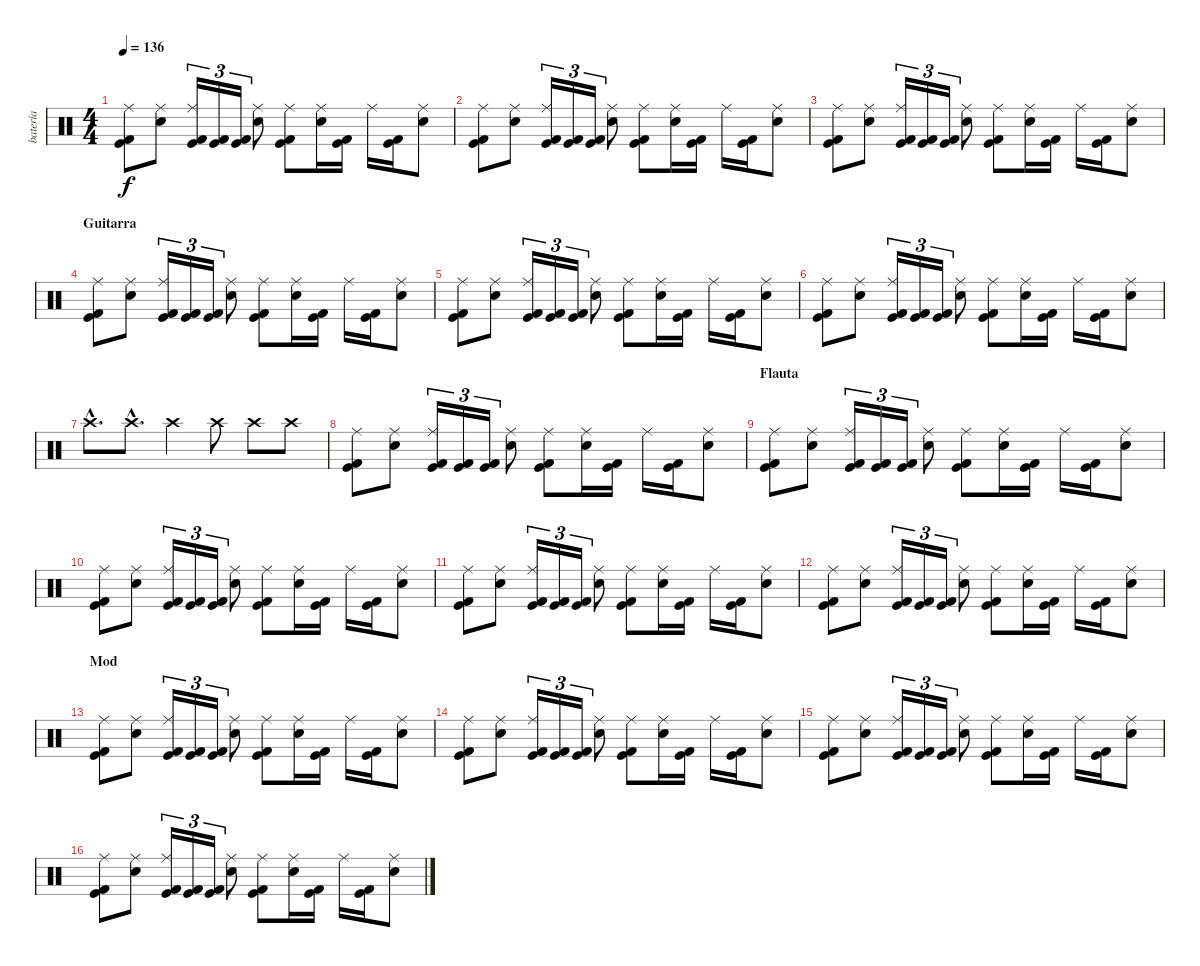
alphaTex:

\track ("batería" "batería") {instrument percussion}
\staff {score}
\articulation defaults
\ts (4 4)
\tempo 136
\clef neutral
\ks c
("Kick (hit) 2" "Ride (middle)" "Kick (hit)").8{dy f} ("Snare (hit) 2" "Ride (middle)").8 ("Kick (hit) 2" "Ride (middle)" "Kick (hit)").16{tu (3 2)} ("Kick (hit) 2" "Kick (hit)").16{tu (3 2)} ("Kick (hit) 2" "Kick (hit)").16{tu (3 2)} ("Snare (hit) 2" "Ride (middle)").8 ("Kick (hit) 2" "Ride (middle)" "Kick (hit)").8 ("Snare (hit) 2" "Ride (middle)").16 ("Kick (hit) 2" "Kick (hit)").16 "Ride (middle)".16 ("Kick (hit) 2" "Kick (hit)").16 ("Snare (hit) 2" "Ride (middle)").8 |
("Kick (hit) 2" "Ride (middle)" "Kick (hit)").8 ("Snare (hit) 2" "Ride (middle)").8 ("Kick (hit) 2" "Ride (middle)" "Kick (hit)").16{tu (3 2)} ("Kick (hit) 2" "Kick (hit)").16{tu (3 2)} ("Kick (hit) 2" "Kick (hit)").16{tu (3 2)} ("Snare (hit) 2" "Ride (middle)").8 ("Kick (hit) 2" "Ride (middle)" "Kick (hit)").8 ("Snare (hit) 2" "Ride (middle)").16 ("Kick (hit) 2" "Kick (hit)").16 "Ride (middle)".16 ("Kick (hit) 2" "Kick (hit)").16 ("Snare (hit) 2" "Ride (middle)").8 |
("Kick (hit) 2" "Ride (middle)" "Kick (hit)").8 ("Snare (hit) 2" "Ride (middle)").8 ("Kick (hit) 2" "Ride (middle)" "Kick (hit)").16{tu (3 2)} ("Kick (hit) 2" "Kick (hit)").16{tu (3 2)} ("Kick (hit) 2" "Kick (hit)").16{tu (3 2)} ("Snare (hit) 2" "Ride (middle)").8 ("Kick (hit) 2" "Ride (middle)" "Kick (hit)").8 ("Snare (hit) 2" "Ride (middle)").16 ("Kick (hit) 2" "Kick (hit)").16 "Ride (middle)".16 ("Kick (hit) 2" "Kick (hit)").16 ("Snare (hit) 2" "Ride (middle)").8 |
\section ("" "Guitarra")
("Kick (hit) 2" "Ride (middle)" "Kick (hit)").8 ("Snare (hit) 2" "Ride (middle)").8 ("Kick (hit) 2" "Ride (middle)" "Kick (hit)").16{tu (3 2)} ("Kick (hit) 2" "Kick (hit)").16{tu (3 2)} ("Kick (hit) 2" "Kick (hit)").16{tu (3 2)} ("Snare (hit) 2" "Ride (middle)").8 ("Kick (hit) 2" "Ride (middle)" "Kick (hit)").8 ("Snare (hit) 2" "Ride (middle)").16 ("Kick (hit) 2" "Kick (hit)").16 "Ride (middle)".16 ("Kick (hit) 2" "Kick (hit)").16 ("Snare (hit) 2" "Ride (middle)").8 |
("Kick (hit) 2" "Ride (middle)" "Kick (hit)").8 ("Snare (hit) 2" "Ride (middle)").8 ("Kick (hit) 2" "Ride (middle)" "Kick (hit)").16{tu (3 2)} ("Kick (hit) 2" "Kick (hit)").16{tu (3 2)} ("Kick (hit) 2" "Kick (hit)").16{tu (3 2)} ("Snare (hit) 2" "Ride (middle)").8 ("Kick (hit) 2" "Ride (middle)" "Kick (hit)").8 ("Snare (hit) 2" "Ride (middle)").16 ("Kick (hit) 2" "Kick (hit)").16 "Ride (middle)".16 ("Kick (hit) 2" "Kick (hit)").16 ("Snare (hit) 2" "Ride (middle)").8 |
("Kick (hit) 2" "Ride (middle)" "Kick (hit)").8 ("Snare (hit) 2" "Ride (middle)").8 ("Kick (hit) 2" "Ride (middle)" "Kick (hit)").16{tu (3 2)} ("Kick (hit) 2" "Kick (hit)").16{tu (3 2)} ("Kick (hit) 2" "Kick (hit)").16{tu (3 2)} ("Snare (hit) 2" "Ride (middle)").8 ("Kick (hit) 2" "Ride (middle)" "Kick (hit)").8 ("Snare (hit) 2" "Ride (middle)").16 ("Kick (hit) 2" "Kick (hit)").16 "Ride (middle)".16 ("Kick (hit) 2" "Kick (hit)").16 ("Snare (hit) 2" "Ride (middle)").8 |
"Crash high (hit)"{hac}.8{d} "Crash high (hit)"{hac}.8{d} "Crash high (hit)".4 "Crash high (hit)".8 "Crash high (hit)".8 "Crash high (hit)".8 |
("Kick (hit) 2" "Ride (middle)" "Kick (hit)").8 ("Snare (hit) 2" "Ride (middle)").8 ("Kick (hit) 2" "Ride (middle)" "Kick (hit)").16{tu (3 2)} ("Kick (hit) 2" "Kick (hit)").16{tu (3 2)} ("Kick (hit) 2" "Kick (hit)").16{tu (3 2)} ("Snare (hit) 2" "Ride (middle)").8 ("Kick (hit) 2" "Ride (middle)" "Kick (hit)").8 ("Snare (hit) 2" "Ride (middle)").16 ("Kick (hit) 2" "Kick (hit)").16 "Ride (middle)".16 ("Kick (hit) 2" "Kick (hit)").16 ("Snare (hit) 2" "Ride (middle)").8 |
\section ("" "Flauta")
("Kick (hit) 2" "Ride (middle)" "Kick (hit)").8 ("Snare (hit) 2" "Ride (middle)").8 ("Kick (hit) 2" "Ride (middle)" "Kick (hit)").16{tu (3 2)} ("Kick (hit) 2" "Kick (hit)").16{tu (3 2)} ("Kick (hit) 2" "Kick (hit)").16{tu (3 2)} ("Snare (hit) 2" "Ride (middle)").8 ("Kick (hit) 2" "Ride (middle)" "Kick (hit)").8 ("Snare (hit) 2" "Ride (middle)").16 ("Kick (hit) 2" "Kick (hit)").16 "Ride (middle)".16 ("Kick (hit) 2" "Kick (hit)").16 ("Snare (hit) 2" "Ride (middle)").8 |
("Kick (hit) 2" "Ride (middle)" "Kick (hit)").8 ("Snare (hit) 2" "Ride (middle)").8 ("Kick (hit) 2" "Ride (middle)" "Kick (hit)").16{tu (3 2)} ("Kick (hit) 2" "Kick (hit)").16{tu (3 2)} ("Kick (hit) 2" "Kick (hit)").16{tu (3 2)} ("Snare (hit) 2" "Ride (middle)").8 ("Kick (hit) 2" "Ride (middle)" "Kick (hit)").8 ("Snare (hit) 2" "Ride (middle)").16 ("Kick (hit) 2" "Kick (hit)").16 "Ride (middle)".16 ("Kick (hit) 2" "Kick (hit)").16 ("Snare (hit) 2" "Ride (middle)").8 |
("Kick (hit) 2" "Ride (middle)" "Kick (hit)").8 ("Snare (hit) 2" "Ride (middle)").8 ("Kick (hit) 2" "Ride (middle)" "Kick (hit)").16{tu (3 2)} ("Kick (hit) 2" "Kick (hit)").16{tu (3 2)} ("Kick (hit) 2" "Kick (hit)").16{tu (3 2)} ("Snare (hit) 2" "Ride (middle)").8 ("Kick (hit) 2" "Ride (middle)" "Kick (hit)").8 ("Snare (hit) 2" "Ride (middle)").16 ("Kick (hit) 2" "Kick (hit)").16 "Ride (middle)".16 ("Kick (hit) 2" "Kick (hit)").16 ("Snare (hit) 2" "Ride (middle)").8 |
("Kick (hit) 2" "Ride (middle)" "Kick (hit)").8 ("Snare (hit) 2" "Ride (middle)").8 ("Kick (hit) 2" "Ride (middle)" "Kick (hit)").16{tu (3 2)} ("Kick (hit) 2" "Kick (hit)").16{tu (3 2)} ("Kick (hit) 2" "Kick (hit)").16{tu (3 2)} ("Snare (hit) 2" "Ride (middle)").8 ("Kick (hit) 2" "Ride (middle)" "Kick (hit)").8 ("Snare (hit) 2" "Ride (middle)").16 ("Kick (hit) 2" "Kick (hit)").16 "Ride (middle)".16 ("Kick (hit) 2" "Kick (hit)").16 ("Snare (hit) 2" "Ride (middle)").8 |
\section ("" "Mod")
("Kick (hit) 2" "Ride (middle)" "Kick (hit)").8 ("Snare (hit) 2" "Ride (middle)").8 ("Kick (hit) 2" "Ride (middle)" "Kick (hit)").16{tu (3 2)} ("Kick (hit) 2" "Kick (hit)").16{tu (3 2)} ("Kick (hit) 2" "Kick (hit)").16{tu (3 2)} ("Snare (hit) 2" "Ride (middle)").8 ("Kick (hit) 2" "Ride (middle)" "Kick (hit)").8 ("Snare (hit) 2" "Ride (middle)").16 ("Kick (hit) 2" "Kick (hit)").16 "Ride (middle)".16 ("Kick (hit) 2" "Kick (hit)").16 ("Snare (hit) 2" "Ride (middle)").8 |
("Kick (hit) 2" "Ride (middle)" "Kick (hit)").8 ("Snare (hit) 2" "Ride (middle)").8 ("Kick (hit) 2" "Ride (middle)" "Kick (hit)").16{tu (3 2)} ("Kick (hit) 2" "Kick (hit)").16{tu (3 2)} ("Kick (hit) 2" "Kick (hit)").16{tu (3 2)} ("Snare (hit) 2" "Ride (middle)").8 ("Kick (hit) 2" "Ride (middle)" "Kick (hit)").8 ("Snare (hit) 2" "Ride (middle)").16 ("Kick (hit) 2" "Kick (hit)").16 "Ride (middle)".16 ("Kick (hit) 2" "Kick (hit)").16 ("Snare (hit) 2" "Ride (middle)").8 |
("Kick (hit) 2" "Ride (middle)" "Kick (hit)").8 ("Snare (hit) 2" "Ride (middle)").8 ("Kick (hit) 2" "Ride (middle)" "Kick (hit)").16{tu (3 2)} ("Kick (hit) 2" "Kick (hit)").16{tu (3 2)} ("Kick (hit) 2" "Kick (hit)").16{tu (3 2)} ("Snare (hit) 2" "Ride (middle)").8 ("Kick (hit) 2" "Ride (middle)" "Kick (hit)").8 ("Snare (hit) 2" "Ride (middle)").16 ("Kick (hit) 2" "Kick (hit)").16 "Ride (middle)".16 ("Kick (hit) 2" "Kick (hit)").16 ("Snare (hit) 2" "Ride (middle)").8 |
("Kick (hit) 2" "Ride (middle)" "Kick (hit)").8 ("Snare (hit) 2" "Ride (middle)").8 ("Kick (hit) 2" "Ride (middle)" "Kick (hit)").16{tu (3 2)} ("Kick (hit) 2" "Kick (hit)").16{tu (3 2)} ("Kick (hit) 2" "Kick (hit)").16{tu (3 2)} ("Snare (hit) 2" "Ride (middle)").8 ("Kick (hit) 2" "Ride (middle)" "Kick (hit)").8 ("Snare (hit) 2" "Ride (middle)").16 ("Kick (hit) 2" "Kick (hit)").16 "Ride (middle)".16 ("Kick (hit) 2" "Kick (hit)").16 ("Snare (hit) 2" "Ride (middle)").8
